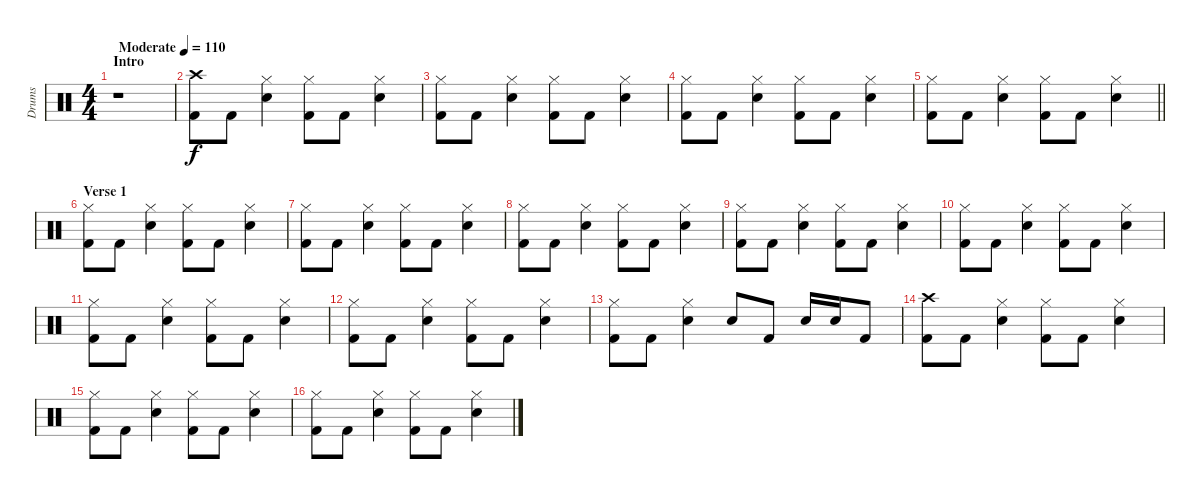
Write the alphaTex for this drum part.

\track ("Drums" "Drums") {instrument percussion}
\staff {score}
\articulation defaults
\ts (4 4)
\section ("" "Intro")
\tempo (110 "Moderate")
\clef neutral
\ks c
r.1{dy f} |
("Crash high (hit)" "Kick (hit) 2").8 "Kick (hit) 2".8 ("Hi-Hat (closed)" "Snare (hit) 2").4 ("Hi-Hat (closed)" "Kick (hit) 2").8 "Kick (hit) 2".8 ("Hi-Hat (closed)" "Snare (hit) 2").4 |
("Hi-Hat (closed)" "Kick (hit) 2").8 "Kick (hit) 2".8 ("Hi-Hat (closed)" "Snare (hit) 2").4 ("Hi-Hat (closed)" "Kick (hit) 2").8 "Kick (hit) 2".8 ("Hi-Hat (closed)" "Snare (hit) 2").4 |
("Hi-Hat (closed)" "Kick (hit) 2").8 "Kick (hit) 2".8 ("Hi-Hat (closed)" "Snare (hit) 2").4 ("Hi-Hat (closed)" "Kick (hit) 2").8 "Kick (hit) 2".8 ("Hi-Hat (closed)" "Snare (hit) 2").4 |
\barLineRight lightlight
("Hi-Hat (closed)" "Kick (hit) 2").8 "Kick (hit) 2".8 ("Hi-Hat (closed)" "Snare (hit) 2").4 ("Hi-Hat (closed)" "Kick (hit) 2").8 "Kick (hit) 2".8 ("Hi-Hat (closed)" "Snare (hit) 2").4 |
\section ("" "Verse 1")
("Hi-Hat (closed)" "Kick (hit) 2").8 "Kick (hit) 2".8 ("Hi-Hat (closed)" "Snare (hit) 2").4 ("Hi-Hat (closed)" "Kick (hit) 2").8 "Kick (hit) 2".8 ("Hi-Hat (closed)" "Snare (hit) 2").4 |
("Hi-Hat (closed)" "Kick (hit) 2").8 "Kick (hit) 2".8 ("Hi-Hat (closed)" "Snare (hit) 2").4 ("Hi-Hat (closed)" "Kick (hit) 2").8 "Kick (hit) 2".8 ("Hi-Hat (closed)" "Snare (hit) 2").4 |
("Hi-Hat (closed)" "Kick (hit) 2").8 "Kick (hit) 2".8 ("Hi-Hat (closed)" "Snare (hit) 2").4 ("Hi-Hat (closed)" "Kick (hit) 2").8 "Kick (hit) 2".8 ("Hi-Hat (closed)" "Snare (hit) 2").4 |
("Hi-Hat (closed)" "Kick (hit) 2").8 "Kick (hit) 2".8 ("Hi-Hat (closed)" "Snare (hit) 2").4 ("Hi-Hat (closed)" "Kick (hit) 2").8 "Kick (hit) 2".8 ("Hi-Hat (closed)" "Snare (hit) 2").4 |
("Hi-Hat (closed)" "Kick (hit) 2").8 "Kick (hit) 2".8 ("Hi-Hat (closed)" "Snare (hit) 2").4 ("Hi-Hat (closed)" "Kick (hit) 2").8 "Kick (hit) 2".8 ("Hi-Hat (closed)" "Snare (hit) 2").4 |
("Hi-Hat (closed)" "Kick (hit) 2").8 "Kick (hit) 2".8 ("Hi-Hat (closed)" "Snare (hit) 2").4 ("Hi-Hat (closed)" "Kick (hit) 2").8 "Kick (hit) 2".8 ("Hi-Hat (closed)" "Snare (hit) 2").4 |
("Hi-Hat (closed)" "Kick (hit) 2").8 "Kick (hit) 2".8 ("Hi-Hat (closed)" "Snare (hit) 2").4 ("Hi-Hat (closed)" "Kick (hit) 2").8 "Kick (hit) 2".8 ("Hi-Hat (closed)" "Snare (hit) 2").4 |
("Hi-Hat (closed)" "Kick (hit) 2").8 "Kick (hit) 2".8 ("Hi-Hat (closed)" "Snare (hit) 2").4 "Snare (hit) 2".8 "Kick (hit) 2".8 "Snare (hit) 2".16 "Snare (hit) 2".16 "Kick (hit) 2".8 |
("Crash high (hit)" "Kick (hit) 2").8 "Kick (hit) 2".8 ("Hi-Hat (closed)" "Snare (hit) 2").4 ("Hi-Hat (closed)" "Kick (hit) 2").8 "Kick (hit) 2".8 ("Hi-Hat (closed)" "Snare (hit) 2").4 |
("Hi-Hat (closed)" "Kick (hit) 2").8 "Kick (hit) 2".8 ("Hi-Hat (closed)" "Snare (hit) 2").4 ("Hi-Hat (closed)" "Kick (hit) 2").8 "Kick (hit) 2".8 ("Hi-Hat (closed)" "Snare (hit) 2").4 |
("Hi-Hat (closed)" "Kick (hit) 2").8 "Kick (hit) 2".8 ("Hi-Hat (closed)" "Snare (hit) 2").4 ("Hi-Hat (closed)" "Kick (hit) 2").8 "Kick (hit) 2".8 ("Hi-Hat (closed)" "Snare (hit) 2").4
